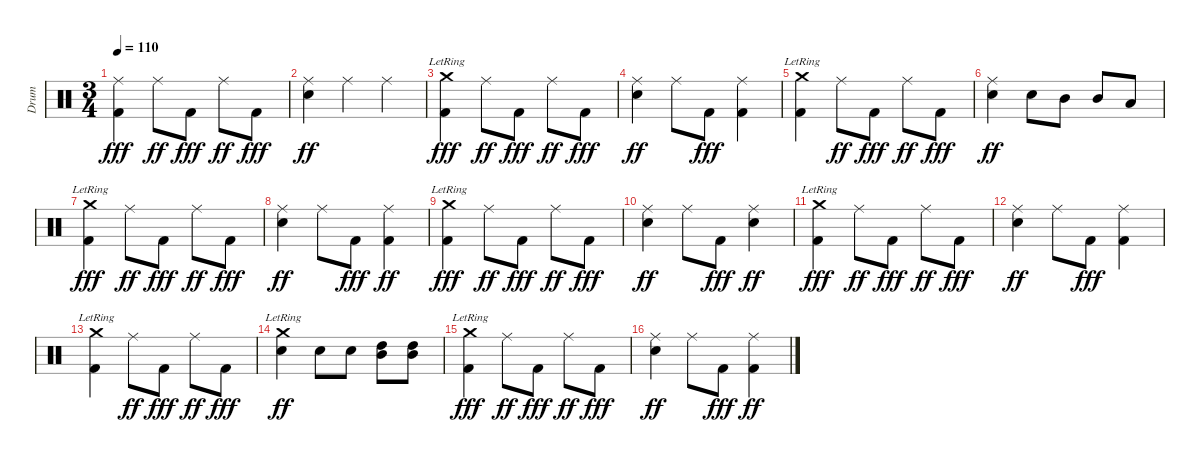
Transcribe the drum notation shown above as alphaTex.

\track ("Drum" "Drum") {instrument percussion}
\staff {score}
\articulation defaults
\ts (3 4)
\tempo 110
\clef neutral
\ks c
("Ride (middle)" "Kick (hit) 2").4{dy fff} "Ride (middle)".8{dy ff} "Kick (hit) 2".8{dy fff} "Ride (middle)".8{dy ff} "Kick (hit) 2".8{dy fff} |
("Ride (middle)" "Snare (hit) 2").4{dy ff} "Ride (middle)".4 "Ride (middle)".4 |
("Crash medium (hit)"{lr} "Kick (hit) 2").4{dy fff} "Ride (middle)".8{dy ff} "Kick (hit) 2".8{dy fff} "Ride (middle)".8{dy ff} "Kick (hit) 2".8{dy fff} |
("Ride (middle)" "Snare (hit) 2").4{dy ff} "Ride (middle)".8 "Kick (hit) 2".8{dy fff} ("Ride (middle)" "Kick (hit) 2").4 |
("Crash medium (hit)"{lr} "Kick (hit) 2").4 "Ride (middle)".8{dy ff} "Kick (hit) 2".8{dy fff} "Ride (middle)".8{dy ff} "Kick (hit) 2".8{dy fff} |
("Ride (middle)" "Snare (hit) 2").4{dy ff} "Snare (hit) 2".8 "Mid Tom (hit)".8 "Mid Tom (hit)".8 "Low Tom (hit)".8 |
("Crash medium (hit)"{lr} "Kick (hit) 2").4{dy fff} "Ride (middle)".8{dy ff} "Kick (hit) 2".8{dy fff} "Ride (middle)".8{dy ff} "Kick (hit) 2".8{dy fff} |
("Ride (middle)" "Snare (hit) 2").4{dy ff} "Ride (middle)".8 "Kick (hit) 2".8{dy fff} ("Ride (middle)" "Kick (hit) 2").4{dy ff} |
("Crash medium (hit)"{lr} "Kick (hit) 2").4{dy fff} "Ride (middle)".8{dy ff} "Kick (hit) 2".8{dy fff} "Ride (middle)".8{dy ff} "Kick (hit) 2".8{dy fff} |
("Ride (middle)" "Snare (hit) 2").4{dy ff} "Ride (middle)".8 "Kick (hit) 2".8{dy fff} ("Ride (middle)" "Snare (hit) 2").4{dy ff} |
("Crash medium (hit)"{lr} "Kick (hit) 2").4{dy fff} "Ride (middle)".8{dy ff} "Kick (hit) 2".8{dy fff} "Ride (middle)".8{dy ff} "Kick (hit) 2".8{dy fff} |
("Ride (middle)" "Snare (hit) 2").4{dy ff} "Ride (middle)".8 "Kick (hit) 2".8{dy fff} ("Ride (middle)" "Kick (hit) 2").4 |
("Crash medium (hit)"{lr} "Kick (hit) 2").4 "Ride (middle)".8{dy ff} "Kick (hit) 2".8{dy fff} "Ride (middle)".8{dy ff} "Kick (hit) 2".8{dy fff} |
("Crash medium (hit)"{lr} "Snare (hit) 2").4{dy ff} "Snare (hit) 2".8 "Snare (hit) 2".8 ("High Tom (hit)" "Mid Tom (hit)").8 ("High Tom (hit)" "Mid Tom (hit)").8 |
("Crash medium (hit)"{lr} "Kick (hit) 2").4{dy fff} "Ride (middle)".8{dy ff} "Kick (hit) 2".8{dy fff} "Ride (middle)".8{dy ff} "Kick (hit) 2".8{dy fff} |
("Ride (middle)" "Snare (hit) 2").4{dy ff} "Ride (middle)".8 "Kick (hit) 2".8{dy fff} ("Ride (middle)" "Kick (hit) 2").4{dy ff}
